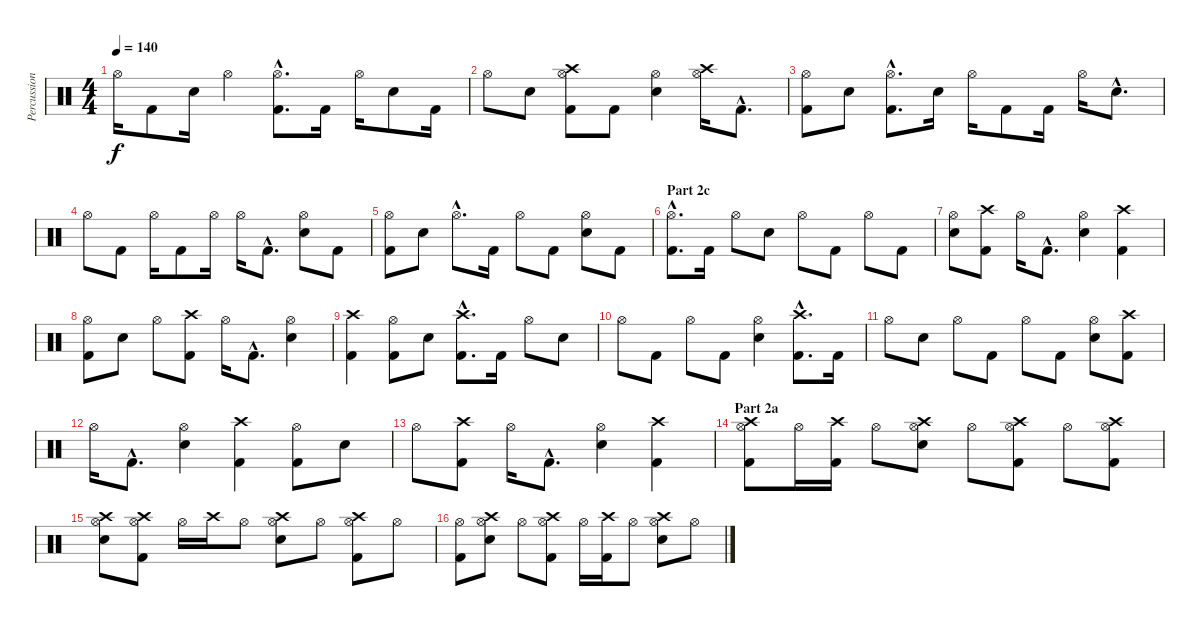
\track ("Percussion" "Percussion") {instrument percussion}
\staff {score}
\articulation defaults
\ts (4 4)
\tempo 140
\clef neutral
\ks c "Hi-Hat (open)".16{dy f} "Kick (hit) 2".8 "Electric Snare (hit)".16 "Hi-Hat (open)".4
("Hi-Hat (open)"{hac} "Kick (hit) 2"{hac}).8{d} "Kick (hit) 2".16 "Hi-Hat (open)".16 "Electric Snare (hit)".8 "Kick (hit) 2".16 |
"Hi-Hat (open)".8 "Electric Snare (hit)".8 ("Crash high (hit)" "Hi-Hat (open)" "Kick (hit) 2").8 "Kick (hit) 2".8 ("Hi-Hat (open)" "Electric Snare (hit)").4 ("Crash high (hit)" "Hi-Hat (open)").16 "Kick (hit) 2"{hac}.8{d} |
("Hi-Hat (open)" "Kick (hit) 2").8 "Electric Snare (hit)".8 ("Hi-Hat (open)"{hac} "Kick (hit) 2"{hac}).8{d} "Electric Snare (hit)".16 "Hi-Hat (open)".16 "Kick (hit) 2".8 "Kick (hit) 2".16 "Hi-Hat (open)".16 "Electric Snare (hit)"{hac}.8{d} |
"Hi-Hat (open)".8 "Kick (hit) 2".8 "Hi-Hat (open)".16 "Kick (hit) 2".8 "Hi-Hat (open)".16 "Hi-Hat (open)".16 "Kick (hit) 2"{hac}.8{d} ("Hi-Hat (open)" "Electric Snare (hit)").8 "Kick (hit) 2".8 |
("Hi-Hat (open)" "Kick (hit) 2").8 "Electric Snare (hit)".8 "Hi-Hat (open)"{hac}.8{d} "Kick (hit) 2".16 "Hi-Hat (open)".8 "Kick (hit) 2".8 ("Hi-Hat (open)" "Electric Snare (hit)").8 "Kick (hit) 2".8 |
\section ("" "Part 2c")
("Hi-Hat (open)"{hac} "Kick (hit) 2"{hac}).8{d} "Kick (hit) 2".16 "Hi-Hat (open)".8 "Electric Snare (hit)".8 "Hi-Hat (open)".8 "Kick (hit) 2".8 "Hi-Hat (open)".8 "Kick (hit) 2".8 |
("Hi-Hat (open)" "Electric Snare (hit)").8 ("Crash high (hit)" "Kick (hit) 2").8 "Hi-Hat (open)".16 "Kick (hit) 2"{hac}.8{d} ("Hi-Hat (open)" "Electric Snare (hit)").4 ("Crash high (hit)" "Kick (hit) 2").4 |
("Hi-Hat (open)" "Kick (hit) 2").8 "Electric Snare (hit)".8 "Hi-Hat (open)".8 ("Crash high (hit)" "Kick (hit) 2").8 "Hi-Hat (open)".16 "Kick (hit) 2"{hac}.8{d} ("Hi-Hat (open)" "Electric Snare (hit)").4 |
("Crash high (hit)" "Kick (hit) 2").4 ("Hi-Hat (open)" "Kick (hit) 2").8 "Electric Snare (hit)".8 ("Crash high (hit)"{hac} "Kick (hit) 2"{hac}).8{d} "Kick (hit) 2".16 "Hi-Hat (open)".8 "Electric Snare (hit)".8 |
"Hi-Hat (open)".8 "Kick (hit) 2".8 "Hi-Hat (open)".8 "Kick (hit) 2".8 ("Hi-Hat (open)" "Electric Snare (hit)").4 ("Crash high (hit)"{hac} "Kick (hit) 2"{hac}).8{d} "Kick (hit) 2".16 |
"Hi-Hat (open)".8 "Electric Snare (hit)".8 "Hi-Hat (open)".8 "Kick (hit) 2".8 "Hi-Hat (open)".8 "Kick (hit) 2".8 ("Hi-Hat (open)" "Electric Snare (hit)").8 ("Crash high (hit)" "Kick (hit) 2").8 |
"Hi-Hat (open)".16 "Kick (hit) 2"{hac}.8{d} ("Hi-Hat (open)" "Electric Snare (hit)").4 ("Crash high (hit)" "Kick (hit) 2").4 ("Hi-Hat (open)" "Kick (hit) 2").8 "Electric Snare (hit)".8 |
"Hi-Hat (open)".8 ("Crash high (hit)" "Kick (hit) 2").8 "Hi-Hat (open)".16 "Kick (hit) 2"{hac}.8{d} ("Hi-Hat (open)" "Electric Snare (hit)").4 ("Crash high (hit)" "Kick (hit) 2").4 |
\section ("" "Part 2a")
("Crash high (hit)" "Hi-Hat (open)" "Kick (hit) 2").8 "Hi-Hat (open)".16 ("Crash high (hit)" "Kick (hit) 2").16 "Hi-Hat (open)".8 ("Crash high (hit)" "Hi-Hat (open)" "Electric Snare (hit)").8 "Hi-Hat (open)".8 ("Crash high (hit)" "Hi-Hat (open)" "Kick (hit) 2").8 "Hi-Hat (open)".8 ("Crash high (hit)" "Hi-Hat (open)" "Kick (hit) 2").8 |
("Crash high (hit)" "Hi-Hat (open)" "Electric Snare (hit)").8 ("Crash high (hit)" "Hi-Hat (open)" "Kick (hit) 2").8 "Hi-Hat (open)".16 "Crash high (hit)".16 "Hi-Hat (open)".8 ("Crash high (hit)" "Hi-Hat (open)" "Electric Snare (hit)").8 "Hi-Hat (open)".8 ("Crash high (hit)" "Hi-Hat (open)" "Kick (hit) 2").8 "Hi-Hat (open)".8 |
("Hi-Hat (open)" "Kick (hit) 2").8 ("Crash high (hit)" "Hi-Hat (open)" "Electric Snare (hit)").8 "Hi-Hat (open)".8 ("Crash high (hit)" "Hi-Hat (open)" "Kick (hit) 2").8 "Hi-Hat (open)".16 ("Crash high (hit)" "Kick (hit) 2").16 "Hi-Hat (open)".8 ("Crash high (hit)" "Hi-Hat (open)" "Electric Snare (hit)").8 "Hi-Hat (open)".8
